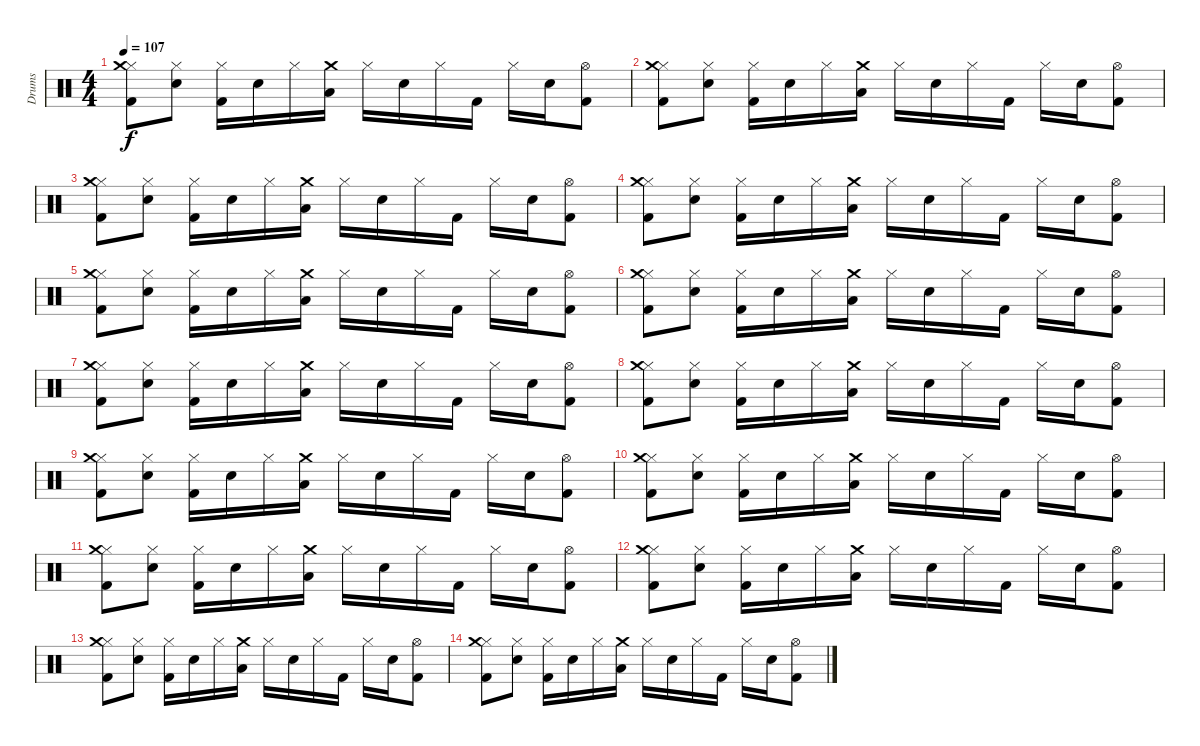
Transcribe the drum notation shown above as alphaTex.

\track ("Drums" "Drums") {instrument percussion}
\staff {score}
\articulation defaults
\ts (4 4)
\tempo 107
\clef neutral
\ks c
("Hi-Hat (closed)" "Crash medium (hit)" "Kick (hit) 2").8{dy f} ("Hi-Hat (closed)" "Snare (hit) 2").8 ("Hi-Hat (closed)" "Kick (hit) 2").16 "Snare (hit) 2".16 "Hi-Hat (closed)".16 ("Crash medium (hit)" "Low Tom (hit)").16 "Hi-Hat (closed)".16 "Snare (hit) 2".16 "Hi-Hat (closed)".16 "Kick (hit) 2".16 "Hi-Hat (closed)".16 "Snare (hit) 2".16 ("Hi-Hat (open)" "Kick (hit) 2").8 |
("Hi-Hat (closed)" "Crash medium (hit)" "Kick (hit) 2").8 ("Hi-Hat (closed)" "Snare (hit) 2").8 ("Hi-Hat (closed)" "Kick (hit) 2").16 "Snare (hit) 2".16 "Hi-Hat (closed)".16 ("Crash medium (hit)" "Low Tom (hit)").16 "Hi-Hat (closed)".16 "Snare (hit) 2".16 "Hi-Hat (closed)".16 "Kick (hit) 2".16 "Hi-Hat (closed)".16 "Snare (hit) 2".16 ("Hi-Hat (open)" "Kick (hit) 2").8 |
("Hi-Hat (closed)" "Crash medium (hit)" "Kick (hit) 2").8 ("Hi-Hat (closed)" "Snare (hit) 2").8 ("Hi-Hat (closed)" "Kick (hit) 2").16 "Snare (hit) 2".16 "Hi-Hat (closed)".16 ("Crash medium (hit)" "Low Tom (hit)").16 "Hi-Hat (closed)".16 "Snare (hit) 2".16 "Hi-Hat (closed)".16 "Kick (hit) 2".16 "Hi-Hat (closed)".16 "Snare (hit) 2".16 ("Hi-Hat (open)" "Kick (hit) 2").8 |
("Hi-Hat (closed)" "Crash medium (hit)" "Kick (hit) 2").8 ("Hi-Hat (closed)" "Snare (hit) 2").8 ("Hi-Hat (closed)" "Kick (hit) 2").16 "Snare (hit) 2".16 "Hi-Hat (closed)".16 ("Crash medium (hit)" "Low Tom (hit)").16 "Hi-Hat (closed)".16 "Snare (hit) 2".16 "Hi-Hat (closed)".16 "Kick (hit) 2".16 "Hi-Hat (closed)".16 "Snare (hit) 2".16 ("Hi-Hat (open)" "Kick (hit) 2").8 |
("Hi-Hat (closed)" "Crash medium (hit)" "Kick (hit) 2").8 ("Hi-Hat (closed)" "Snare (hit) 2").8 ("Hi-Hat (closed)" "Kick (hit) 2").16 "Snare (hit) 2".16 "Hi-Hat (closed)".16 ("Crash medium (hit)" "Low Tom (hit)").16 "Hi-Hat (closed)".16 "Snare (hit) 2".16 "Hi-Hat (closed)".16 "Kick (hit) 2".16 "Hi-Hat (closed)".16 "Snare (hit) 2".16 ("Hi-Hat (open)" "Kick (hit) 2").8 |
("Hi-Hat (closed)" "Crash medium (hit)" "Kick (hit) 2").8 ("Hi-Hat (closed)" "Snare (hit) 2").8 ("Hi-Hat (closed)" "Kick (hit) 2").16 "Snare (hit) 2".16 "Hi-Hat (closed)".16 ("Crash medium (hit)" "Low Tom (hit)").16 "Hi-Hat (closed)".16 "Snare (hit) 2".16 "Hi-Hat (closed)".16 "Kick (hit) 2".16 "Hi-Hat (closed)".16 "Snare (hit) 2".16 ("Hi-Hat (open)" "Kick (hit) 2").8 |
("Hi-Hat (closed)" "Crash medium (hit)" "Kick (hit) 2").8 ("Hi-Hat (closed)" "Snare (hit) 2").8 ("Hi-Hat (closed)" "Kick (hit) 2").16 "Snare (hit) 2".16 "Hi-Hat (closed)".16 ("Crash medium (hit)" "Low Tom (hit)").16 "Hi-Hat (closed)".16 "Snare (hit) 2".16 "Hi-Hat (closed)".16 "Kick (hit) 2".16 "Hi-Hat (closed)".16 "Snare (hit) 2".16 ("Hi-Hat (open)" "Kick (hit) 2").8 |
("Hi-Hat (closed)" "Crash medium (hit)" "Kick (hit) 2").8 ("Hi-Hat (closed)" "Snare (hit) 2").8 ("Hi-Hat (closed)" "Kick (hit) 2").16 "Snare (hit) 2".16 "Hi-Hat (closed)".16 ("Crash medium (hit)" "Low Tom (hit)").16 "Hi-Hat (closed)".16 "Snare (hit) 2".16 "Hi-Hat (closed)".16 "Kick (hit) 2".16 "Hi-Hat (closed)".16 "Snare (hit) 2".16 ("Hi-Hat (open)" "Kick (hit) 2").8 |
("Hi-Hat (closed)" "Crash medium (hit)" "Kick (hit) 2").8 ("Hi-Hat (closed)" "Snare (hit) 2").8 ("Hi-Hat (closed)" "Kick (hit) 2").16 "Snare (hit) 2".16 "Hi-Hat (closed)".16 ("Crash medium (hit)" "Low Tom (hit)").16 "Hi-Hat (closed)".16 "Snare (hit) 2".16 "Hi-Hat (closed)".16 "Kick (hit) 2".16 "Hi-Hat (closed)".16 "Snare (hit) 2".16 ("Hi-Hat (open)" "Kick (hit) 2").8 |
("Hi-Hat (closed)" "Crash medium (hit)" "Kick (hit) 2").8 ("Hi-Hat (closed)" "Snare (hit) 2").8 ("Hi-Hat (closed)" "Kick (hit) 2").16 "Snare (hit) 2".16 "Hi-Hat (closed)".16 ("Crash medium (hit)" "Low Tom (hit)").16 "Hi-Hat (closed)".16 "Snare (hit) 2".16 "Hi-Hat (closed)".16 "Kick (hit) 2".16 "Hi-Hat (closed)".16 "Snare (hit) 2".16 ("Hi-Hat (open)" "Kick (hit) 2").8 |
("Hi-Hat (closed)" "Crash medium (hit)" "Kick (hit) 2").8 ("Hi-Hat (closed)" "Snare (hit) 2").8 ("Hi-Hat (closed)" "Kick (hit) 2").16 "Snare (hit) 2".16 "Hi-Hat (closed)".16 ("Crash medium (hit)" "Low Tom (hit)").16 "Hi-Hat (closed)".16 "Snare (hit) 2".16 "Hi-Hat (closed)".16 "Kick (hit) 2".16 "Hi-Hat (closed)".16 "Snare (hit) 2".16 ("Hi-Hat (open)" "Kick (hit) 2").8 |
("Hi-Hat (closed)" "Crash medium (hit)" "Kick (hit) 2").8 ("Hi-Hat (closed)" "Snare (hit) 2").8 ("Hi-Hat (closed)" "Kick (hit) 2").16 "Snare (hit) 2".16 "Hi-Hat (closed)".16 ("Crash medium (hit)" "Low Tom (hit)").16 "Hi-Hat (closed)".16 "Snare (hit) 2".16 "Hi-Hat (closed)".16 "Kick (hit) 2".16 "Hi-Hat (closed)".16 "Snare (hit) 2".16 ("Hi-Hat (open)" "Kick (hit) 2").8 |
("Hi-Hat (closed)" "Crash medium (hit)" "Kick (hit) 2").8 ("Hi-Hat (closed)" "Snare (hit) 2").8 ("Hi-Hat (closed)" "Kick (hit) 2").16 "Snare (hit) 2".16 "Hi-Hat (closed)".16 ("Crash medium (hit)" "Low Tom (hit)").16 "Hi-Hat (closed)".16 "Snare (hit) 2".16 "Hi-Hat (closed)".16 "Kick (hit) 2".16 "Hi-Hat (closed)".16 "Snare (hit) 2".16 ("Hi-Hat (open)" "Kick (hit) 2").8 |
("Hi-Hat (closed)" "Crash medium (hit)" "Kick (hit) 2").8 ("Hi-Hat (closed)" "Snare (hit) 2").8 ("Hi-Hat (closed)" "Kick (hit) 2").16 "Snare (hit) 2".16 "Hi-Hat (closed)".16 ("Crash medium (hit)" "Low Tom (hit)").16 "Hi-Hat (closed)".16 "Snare (hit) 2".16 "Hi-Hat (closed)".16 "Kick (hit) 2".16 "Hi-Hat (closed)".16 "Snare (hit) 2".16 ("Hi-Hat (open)" "Kick (hit) 2").8
